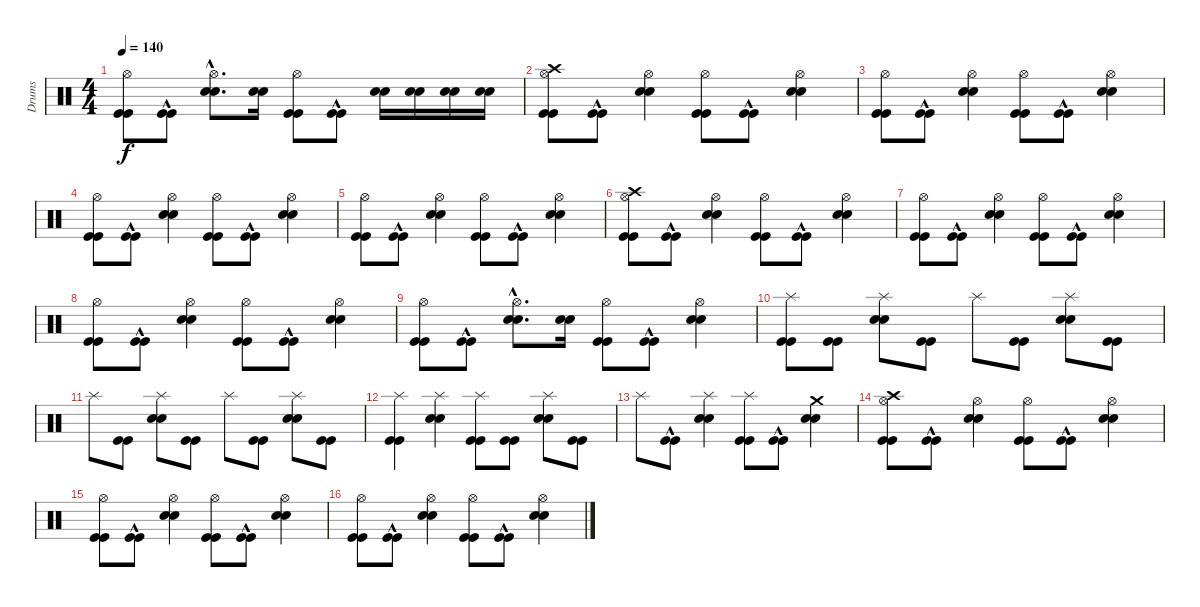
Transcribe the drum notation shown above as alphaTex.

\track ("Drums" "Drums") {instrument percussion}
\staff {score}
\articulation defaults
\ts (4 4)
\tempo 140
\clef neutral
\ks c
("Kick (hit)" "Kick (hit)" "Hi-Hat (open)").8{dy f} ("Kick (hit)"{hac} "Kick (hit)"{hac}).8 ("Snare (hit) 2"{hac} "Snare (hit) 2"{hac} "Hi-Hat (open)").8{d} ("Snare (hit) 2" "Snare (hit) 2").16 ("Kick (hit)" "Kick (hit)" "Hi-Hat (open)").8 ("Kick (hit)"{hac} "Kick (hit)"{hac}).8 ("Snare (hit) 2" "Snare (hit) 2").16 ("Snare (hit) 2" "Snare (hit) 2").16 ("Snare (hit) 2" "Snare (hit) 2").16 ("Snare (hit) 2" "Snare (hit) 2").16 |
("Kick (hit)" "Kick (hit)" "Hi-Hat (open)" "Crash high (hit)").8 ("Kick (hit)"{hac} "Kick (hit)"{hac}).8 ("Snare (hit) 2" "Snare (hit) 2" "Hi-Hat (open)").4 ("Kick (hit)" "Kick (hit)" "Hi-Hat (open)").8 ("Kick (hit)"{hac} "Kick (hit)"{hac}).8 ("Snare (hit) 2" "Snare (hit) 2" "Hi-Hat (open)").4 |
("Kick (hit)" "Kick (hit)" "Hi-Hat (open)").8 ("Kick (hit)"{hac} "Kick (hit)"{hac}).8 ("Snare (hit) 2" "Snare (hit) 2" "Hi-Hat (open)").4 ("Kick (hit)" "Kick (hit)" "Hi-Hat (open)").8 ("Kick (hit)"{hac} "Kick (hit)"{hac}).8 ("Snare (hit) 2" "Snare (hit) 2" "Hi-Hat (open)").4 |
("Kick (hit)" "Kick (hit)" "Hi-Hat (open)").8 ("Kick (hit)"{hac} "Kick (hit)"{hac}).8 ("Snare (hit) 2" "Snare (hit) 2" "Hi-Hat (open)").4 ("Kick (hit)" "Kick (hit)" "Hi-Hat (open)").8 ("Kick (hit)"{hac} "Kick (hit)"{hac}).8 ("Snare (hit) 2" "Snare (hit) 2" "Hi-Hat (open)").4 |
("Kick (hit)" "Kick (hit)" "Hi-Hat (open)").8 ("Kick (hit)"{hac} "Kick (hit)"{hac}).8 ("Snare (hit) 2" "Snare (hit) 2" "Hi-Hat (open)").4 ("Kick (hit)" "Kick (hit)" "Hi-Hat (open)").8 ("Kick (hit)"{hac} "Kick (hit)"{hac}).8 ("Snare (hit) 2" "Snare (hit) 2" "Hi-Hat (open)").4 |
("Kick (hit)" "Kick (hit)" "Hi-Hat (open)" "Crash high (hit)").8 ("Kick (hit)"{hac} "Kick (hit)"{hac}).8 ("Snare (hit) 2" "Snare (hit) 2" "Hi-Hat (open)").4 ("Kick (hit)" "Kick (hit)" "Hi-Hat (open)").8 ("Kick (hit)"{hac} "Kick (hit)"{hac}).8 ("Snare (hit) 2" "Snare (hit) 2" "Hi-Hat (open)").4 |
("Kick (hit)" "Kick (hit)" "Hi-Hat (open)").8 ("Kick (hit)"{hac} "Kick (hit)"{hac}).8 ("Snare (hit) 2" "Snare (hit) 2" "Hi-Hat (open)").4 ("Kick (hit)" "Kick (hit)" "Hi-Hat (open)").8 ("Kick (hit)"{hac} "Kick (hit)"{hac}).8 ("Snare (hit) 2" "Snare (hit) 2" "Hi-Hat (open)").4 |
("Kick (hit)" "Kick (hit)" "Hi-Hat (open)").8 ("Kick (hit)"{hac} "Kick (hit)"{hac}).8 ("Snare (hit) 2" "Snare (hit) 2" "Hi-Hat (open)").4 ("Kick (hit)" "Kick (hit)" "Hi-Hat (open)").8 ("Kick (hit)"{hac} "Kick (hit)"{hac}).8 ("Snare (hit) 2" "Snare (hit) 2" "Hi-Hat (open)").4 |
("Kick (hit)" "Kick (hit)" "Hi-Hat (open)").8 ("Kick (hit)"{hac} "Kick (hit)"{hac}).8 ("Snare (hit) 2"{hac} "Snare (hit) 2"{hac} "Hi-Hat (open)").8{d} ("Snare (hit) 2" "Snare (hit) 2").16 ("Kick (hit)" "Kick (hit)" "Hi-Hat (open)").8 ("Kick (hit)"{hac} "Kick (hit)"{hac}).8 ("Snare (hit) 2" "Snare (hit) 2" "Hi-Hat (open)").4 |
("Kick (hit)" "Kick (hit)" "Splash (hit)").8 ("Kick (hit)" "Kick (hit)").8 ("Snare (hit) 2" "Snare (hit) 2" "Splash (hit)").8 ("Kick (hit)" "Kick (hit)").8 "Splash (hit)".8 ("Kick (hit)" "Kick (hit)").8 ("Snare (hit) 2" "Snare (hit) 2" "Splash (hit)").8 ("Kick (hit)" "Kick (hit)").8 |
"Splash (hit)".8 ("Kick (hit)" "Kick (hit)").8 ("Snare (hit) 2" "Snare (hit) 2" "Splash (hit)").8 ("Kick (hit)" "Kick (hit)").8 "Splash (hit)".8 ("Kick (hit)" "Kick (hit)").8 ("Snare (hit) 2" "Snare (hit) 2" "Splash (hit)").8 ("Kick (hit)" "Kick (hit)").8 |
("Kick (hit)" "Kick (hit)" "Splash (hit)").4 ("Snare (hit) 2" "Snare (hit) 2" "Splash (hit)").4 ("Kick (hit)" "Kick (hit)" "Splash (hit)").8 ("Kick (hit)" "Kick (hit)").8 ("Snare (hit) 2" "Snare (hit) 2" "Splash (hit)").8 ("Kick (hit)" "Kick (hit)").8 |
"Splash (hit)".8 ("Kick (hit)"{hac} "Kick (hit)"{hac}).8 ("Snare (hit) 2" "Snare (hit) 2" "Splash (hit)").4 ("Kick (hit)" "Kick (hit)" "Splash (hit)").8 ("Kick (hit)"{hac} "Kick (hit)"{hac}).8 ("Snare (hit) 2" "Snare (hit) 2" "Crash medium (hit)").4 |
("Kick (hit)" "Kick (hit)" "Hi-Hat (open)" "Crash high (hit)").8 ("Kick (hit)"{hac} "Kick (hit)"{hac}).8 ("Snare (hit) 2" "Snare (hit) 2" "Hi-Hat (open)").4 ("Kick (hit)" "Kick (hit)" "Hi-Hat (open)").8 ("Kick (hit)"{hac} "Kick (hit)"{hac}).8 ("Snare (hit) 2" "Snare (hit) 2" "Hi-Hat (open)").4 |
("Kick (hit)" "Kick (hit)" "Hi-Hat (open)").8 ("Kick (hit)"{hac} "Kick (hit)"{hac}).8 ("Snare (hit) 2" "Snare (hit) 2" "Hi-Hat (open)").4 ("Kick (hit)" "Kick (hit)" "Hi-Hat (open)").8 ("Kick (hit)"{hac} "Kick (hit)"{hac}).8 ("Snare (hit) 2" "Snare (hit) 2" "Hi-Hat (open)").4 |
("Kick (hit)" "Kick (hit)" "Hi-Hat (open)").8 ("Kick (hit)"{hac} "Kick (hit)"{hac}).8 ("Snare (hit) 2" "Snare (hit) 2" "Hi-Hat (open)").4 ("Kick (hit)" "Kick (hit)" "Hi-Hat (open)").8 ("Kick (hit)"{hac} "Kick (hit)"{hac}).8 ("Snare (hit) 2" "Snare (hit) 2" "Hi-Hat (open)").4
